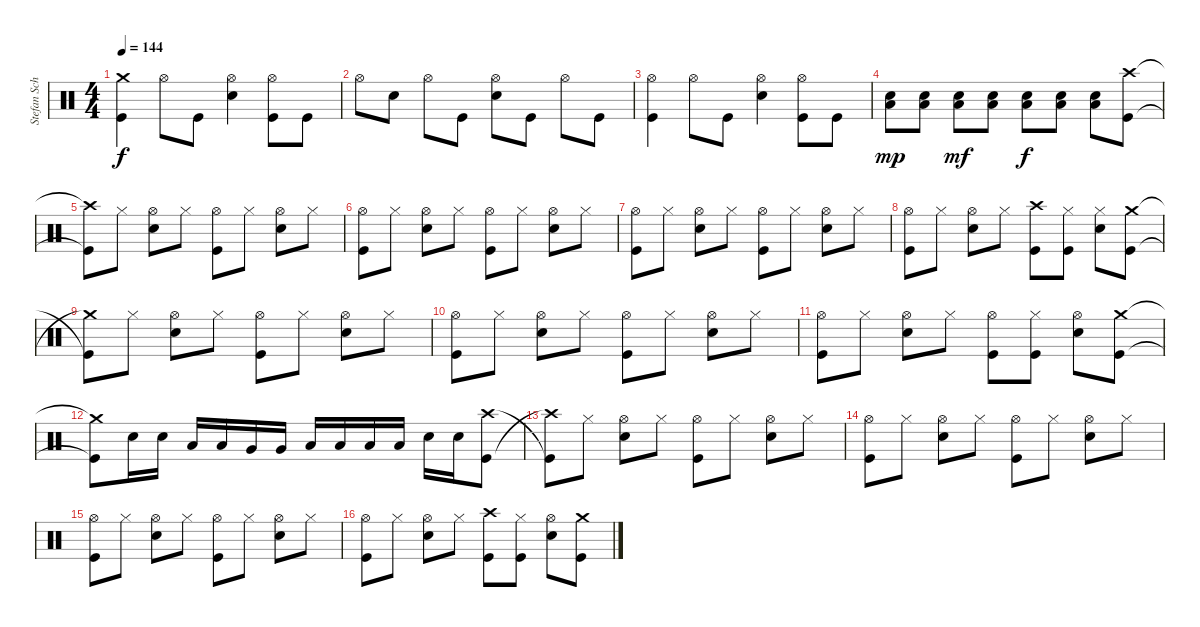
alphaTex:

\track ("Stefan Schwarzmann" "Stefan Sch") {instrument percussion}
\staff {score}
\articulation defaults
\ts (4 4)
\tempo 144
\clef neutral
\ks c
("Kick (hit)" "Crash medium (hit)").4{dy f} "Hi-Hat (open)".8 "Kick (hit)".8 ("Snare (hit) 2" "Hi-Hat (open)").4 ("Kick (hit)" "Hi-Hat (open)").8 "Kick (hit)".8 |
"Hi-Hat (open)".8 "Snare (hit) 2".8 "Hi-Hat (open)".8 "Kick (hit)".8 ("Snare (hit) 2" "Hi-Hat (open)").8 "Kick (hit)".8 "Hi-Hat (open)".8 "Kick (hit)".8 |
("Kick (hit)" "Hi-Hat (open)").4 "Hi-Hat (open)".8 "Kick (hit)".8 ("Hi-Hat (open)" "Snare (hit) 2").4 ("Kick (hit)" "Hi-Hat (open)").8 "Kick (hit)".8 |
("Snare (hit) 2" "Low Floor Tom (hit)").8{dy mp} ("Snare (hit) 2" "Low Floor Tom (hit)").8 ("Snare (hit) 2" "Low Floor Tom (hit)").8{dy mf} ("Snare (hit) 2" "Low Floor Tom (hit)").8 ("Snare (hit) 2" "Low Floor Tom (hit)").8{dy f} ("Snare (hit) 2" "Low Floor Tom (hit)").8 ("Snare (hit) 2" "Low Floor Tom (hit)").8 ("Kick (hit)" "Crash high (hit)").8 |
("Kick (hit)"{t} "Crash high (hit)"{t}).8 "Hi-Hat (closed)".8 ("Snare (hit) 2" "Hi-Hat (open)").8 "Hi-Hat (closed)".8 ("Kick (hit)" "Hi-Hat (open)").8 "Hi-Hat (closed)".8 ("Snare (hit) 2" "Hi-Hat (open)").8 "Hi-Hat (closed)".8 |
("Kick (hit)" "Hi-Hat (open)").8 "Hi-Hat (closed)".8 ("Snare (hit) 2" "Hi-Hat (open)").8 "Hi-Hat (closed)".8 ("Kick (hit)" "Hi-Hat (open)").8 "Hi-Hat (closed)".8 ("Snare (hit) 2" "Hi-Hat (open)").8 "Hi-Hat (closed)".8 |
("Kick (hit)" "Hi-Hat (open)").8 "Hi-Hat (closed)".8 ("Snare (hit) 2" "Hi-Hat (open)").8 "Hi-Hat (closed)".8 ("Kick (hit)" "Hi-Hat (open)").8 "Hi-Hat (closed)".8 ("Snare (hit) 2" "Hi-Hat (open)").8 "Hi-Hat (closed)".8 |
("Kick (hit)" "Hi-Hat (open)").8 "Hi-Hat (closed)".8 ("Snare (hit) 2" "Hi-Hat (open)").8 "Hi-Hat (closed)".8 ("Kick (hit)" "Crash high (hit)").8 ("Kick (hit)" "Hi-Hat (closed)").8 ("Snare (hit) 2" "Hi-Hat (closed)").8 ("Crash medium (hit)" "Kick (hit)").8 |
("Kick (hit)"{t} "Crash medium (hit)"{t}).8 "Hi-Hat (closed)".8 ("Snare (hit) 2" "Hi-Hat (open)").8 "Hi-Hat (closed)".8 ("Kick (hit)" "Hi-Hat (open)").8 "Hi-Hat (closed)".8 ("Snare (hit) 2" "Hi-Hat (open)").8 "Hi-Hat (closed)".8 |
("Kick (hit)" "Hi-Hat (open)").8 "Hi-Hat (closed)".8 ("Snare (hit) 2" "Hi-Hat (open)").8 "Hi-Hat (closed)".8 ("Kick (hit)" "Hi-Hat (open)").8 "Hi-Hat (closed)".8 ("Snare (hit) 2" "Hi-Hat (open)").8 "Hi-Hat (closed)".8 |
("Kick (hit)" "Hi-Hat (open)").8 "Hi-Hat (closed)".8 ("Snare (hit) 2" "Hi-Hat (open)").8 "Hi-Hat (closed)".8 ("Kick (hit)" "Hi-Hat (open)").8 ("Hi-Hat (closed)" "Kick (hit)").8 ("Snare (hit) 2" "Hi-Hat (open)").8 ("Crash medium (hit)" "Kick (hit)").8 |
("Crash medium (hit)"{t} "Kick (hit)"{t}).8 "Snare (hit) 2".16 "Snare (hit) 2".16 "Low Tom (hit)".16 "Low Tom (hit)".16 "Very Low Tom (hit)".16 "Very Low Tom (hit)".16 "Low Floor Tom (hit)".16 "Low Floor Tom (hit)".16 "Low Floor Tom (hit)".16 "Low Floor Tom (hit)".16 "Snare (hit) 2".16 "Snare (hit) 2".16 ("Crash high (hit)" "Kick (hit)").8 |
("Kick (hit)"{t} "Crash high (hit)"{t}).8 "Hi-Hat (closed)".8 ("Snare (hit) 2" "Hi-Hat (open)").8 "Hi-Hat (closed)".8 ("Kick (hit)" "Hi-Hat (open)").8 "Hi-Hat (closed)".8 ("Snare (hit) 2" "Hi-Hat (open)").8 "Hi-Hat (closed)".8 |
("Kick (hit)" "Hi-Hat (open)").8 "Hi-Hat (closed)".8 ("Snare (hit) 2" "Hi-Hat (open)").8 "Hi-Hat (closed)".8 ("Kick (hit)" "Hi-Hat (open)").8 "Hi-Hat (closed)".8 ("Snare (hit) 2" "Hi-Hat (open)").8 "Hi-Hat (closed)".8 |
("Kick (hit)" "Hi-Hat (open)").8 "Hi-Hat (closed)".8 ("Snare (hit) 2" "Hi-Hat (open)").8 "Hi-Hat (closed)".8 ("Kick (hit)" "Hi-Hat (open)").8 "Hi-Hat (closed)".8 ("Snare (hit) 2" "Hi-Hat (open)").8 "Hi-Hat (closed)".8 |
("Kick (hit)" "Hi-Hat (open)").8 "Hi-Hat (closed)".8 ("Snare (hit) 2" "Hi-Hat (open)").8 "Hi-Hat (closed)".8 ("Kick (hit)" "Crash high (hit)").8 ("Kick (hit)" "Hi-Hat (closed)").8 ("Snare (hit) 2" "Hi-Hat (open)").8 ("Crash medium (hit)" "Kick (hit)").8
